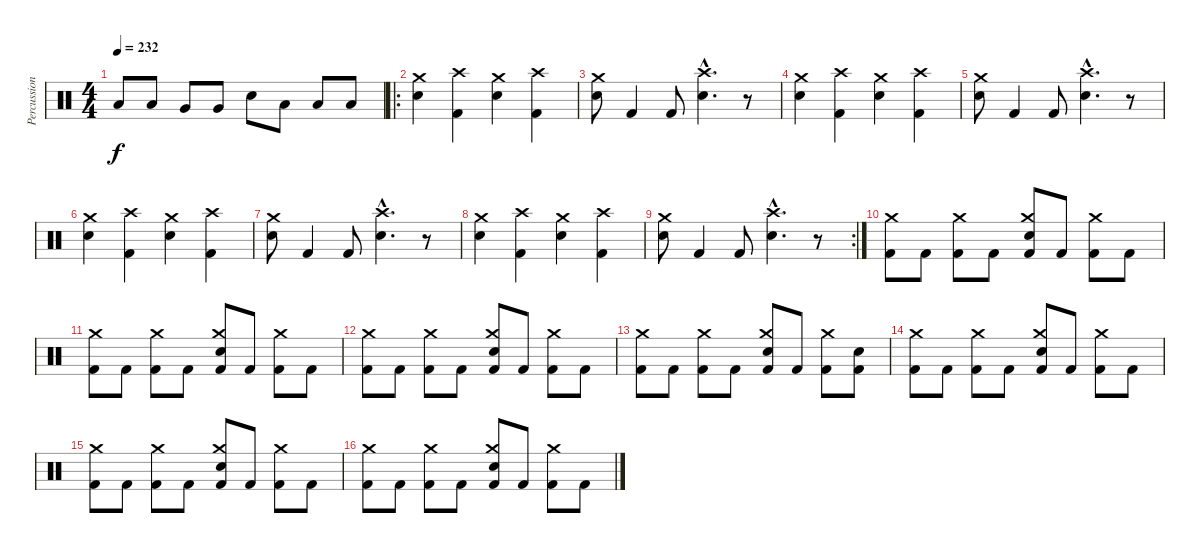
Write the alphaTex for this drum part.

\track ("Percussions" "Percussion") {instrument percussion}
\staff {score}
\articulation defaults
\ts (4 4)
\tempo 232
\clef neutral
\ks c "Low Tom (hit)".8{dy f} "Low Tom (hit)".8 "Very Low Tom (hit)".8 "Very Low Tom (hit)".8 "Electric Snare (hit)".8 "Low Floor Tom (hit)".8 "Low Floor Tom (hit)".8 "Low Floor Tom (hit)".8
|
\ro
("Crash medium (hit)" "Electric Snare (hit)").4 ("Crash high (hit)" "Kick (hit) 2").4 ("Crash medium (hit)" "Electric Snare (hit)").4 ("Crash high (hit)" "Kick (hit) 2").4 |
("Crash medium (hit)" "Electric Snare (hit)").8 "Kick (hit) 2".4 "Kick (hit) 2".8 ("Crash high (hit)"{hac} "Electric Snare (hit)"{hac}).4{d} r.8 |
("Crash medium (hit)" "Electric Snare (hit)").4 ("Crash high (hit)" "Kick (hit) 2").4 ("Crash medium (hit)" "Electric Snare (hit)").4 ("Crash high (hit)" "Kick (hit) 2").4 |
("Crash medium (hit)" "Electric Snare (hit)").8 "Kick (hit) 2".4 "Kick (hit) 2".8 ("Crash high (hit)"{hac} "Electric Snare (hit)"{hac}).4{d} r.8 |
("Crash medium (hit)" "Electric Snare (hit)").4 ("Crash high (hit)" "Kick (hit) 2").4 ("Crash medium (hit)" "Electric Snare (hit)").4 ("Crash high (hit)" "Kick (hit) 2").4 |
("Crash medium (hit)" "Electric Snare (hit)").8 "Kick (hit) 2".4 "Kick (hit) 2".8 ("Crash high (hit)"{hac} "Electric Snare (hit)"{hac}).4{d} r.8 |
("Crash medium (hit)" "Electric Snare (hit)").4 ("Crash high (hit)" "Kick (hit) 2").4 ("Crash medium (hit)" "Electric Snare (hit)").4 ("Crash high (hit)" "Kick (hit) 2").4 |
\rc 2
("Crash medium (hit)" "Electric Snare (hit)").8 "Kick (hit) 2".4 "Kick (hit) 2".8 ("Crash high (hit)"{hac} "Electric Snare (hit)"{hac}).4{d} r.8 |
("Crash medium (hit)" "Kick (hit) 2").8 "Kick (hit) 2".8 ("Crash medium (hit)" "Kick (hit) 2").8 "Kick (hit) 2".8 ("Crash medium (hit)" "Electric Snare (hit)" "Kick (hit) 2").8 "Kick (hit) 2".8 ("Crash medium (hit)" "Kick (hit) 2").8 "Kick (hit) 2".8 |
("Crash medium (hit)" "Kick (hit) 2").8 "Kick (hit) 2".8 ("Crash medium (hit)" "Kick (hit) 2").8 "Kick (hit) 2".8 ("Crash medium (hit)" "Electric Snare (hit)" "Kick (hit) 2").8 "Kick (hit) 2".8 ("Crash medium (hit)" "Kick (hit) 2").8 "Kick (hit) 2".8 |
("Crash medium (hit)" "Kick (hit) 2").8 "Kick (hit) 2".8 ("Crash medium (hit)" "Kick (hit) 2").8 "Kick (hit) 2".8 ("Crash medium (hit)" "Electric Snare (hit)" "Kick (hit) 2").8 "Kick (hit) 2".8 ("Crash medium (hit)" "Kick (hit) 2").8 "Kick (hit) 2".8 |
("Crash medium (hit)" "Kick (hit) 2").8 "Kick (hit) 2".8 ("Crash medium (hit)" "Kick (hit) 2").8 "Kick (hit) 2".8 ("Crash medium (hit)" "Electric Snare (hit)" "Kick (hit) 2").8 "Kick (hit) 2".8 ("Crash medium (hit)" "Kick (hit) 2").8 ("Electric Snare (hit)" "Kick (hit) 2").8 |
("Crash medium (hit)" "Kick (hit) 2").8 "Kick (hit) 2".8 ("Crash medium (hit)" "Kick (hit) 2").8 "Kick (hit) 2".8 ("Crash medium (hit)" "Electric Snare (hit)" "Kick (hit) 2").8 "Kick (hit) 2".8 ("Crash medium (hit)" "Kick (hit) 2").8 "Kick (hit) 2".8 |
("Crash medium (hit)" "Kick (hit) 2").8 "Kick (hit) 2".8 ("Crash medium (hit)" "Kick (hit) 2").8 "Kick (hit) 2".8 ("Crash medium (hit)" "Electric Snare (hit)" "Kick (hit) 2").8 "Kick (hit) 2".8 ("Crash medium (hit)" "Kick (hit) 2").8 "Kick (hit) 2".8 |
("Crash medium (hit)" "Kick (hit) 2").8 "Kick (hit) 2".8 ("Crash medium (hit)" "Kick (hit) 2").8 "Kick (hit) 2".8 ("Crash medium (hit)" "Electric Snare (hit)" "Kick (hit) 2").8 "Kick (hit) 2".8 ("Crash medium (hit)" "Kick (hit) 2").8 "Kick (hit) 2".8
